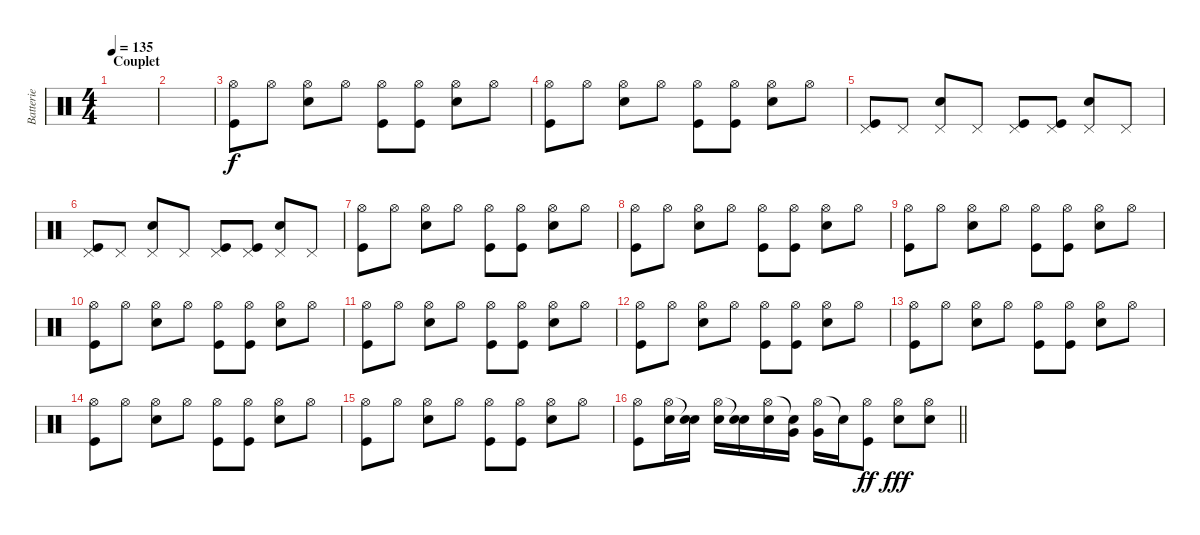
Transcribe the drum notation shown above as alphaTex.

\track ("Batterie" "Batterie") {instrument percussion}
\staff {score}
\articulation defaults
\ts (4 4)
\section ("" "Couplet")
\tempo 135
\clef neutral
\ks c
|
|
("Hi-Hat (open)" "Kick (hit)").8 "Hi-Hat (open)".8 ("Hi-Hat (open)" "Electric Snare (hit)").8 "Hi-Hat (open)".8 ("Hi-Hat (open)" "Kick (hit)").8 ("Hi-Hat (open)" "Kick (hit)").8 ("Hi-Hat (open)" "Electric Snare (hit)").8 "Hi-Hat (open)".8 |
("Hi-Hat (open)" "Kick (hit)").8 "Hi-Hat (open)".8 ("Hi-Hat (open)" "Electric Snare (hit)").8 "Hi-Hat (open)".8 ("Hi-Hat (open)" "Kick (hit)").8 ("Hi-Hat (open)" "Kick (hit)").8 ("Hi-Hat (open)" "Electric Snare (hit)").8 "Hi-Hat (open)".8 |
("Pedal Hi-Hat (hit)" "Kick (hit)").8 "Pedal Hi-Hat (hit)".8 ("Pedal Hi-Hat (hit)" "Electric Snare (hit)").8 "Pedal Hi-Hat (hit)".8 ("Pedal Hi-Hat (hit)" "Kick (hit)").8 ("Pedal Hi-Hat (hit)" "Kick (hit)").8 ("Pedal Hi-Hat (hit)" "Electric Snare (hit)").8 "Pedal Hi-Hat (hit)".8 |
("Pedal Hi-Hat (hit)" "Kick (hit)").8 "Pedal Hi-Hat (hit)".8 ("Pedal Hi-Hat (hit)" "Electric Snare (hit)").8 "Pedal Hi-Hat (hit)".8 ("Pedal Hi-Hat (hit)" "Kick (hit)").8 ("Pedal Hi-Hat (hit)" "Kick (hit)").8 ("Pedal Hi-Hat (hit)" "Electric Snare (hit)").8 "Pedal Hi-Hat (hit)".8 |
("Hi-Hat (open)" "Kick (hit)").8 "Hi-Hat (open)".8 ("Hi-Hat (open)" "Electric Snare (hit)").8 "Hi-Hat (open)".8 ("Hi-Hat (open)" "Kick (hit)").8 ("Hi-Hat (open)" "Kick (hit)").8 ("Hi-Hat (open)" "Electric Snare (hit)").8 "Hi-Hat (open)".8 |
("Hi-Hat (open)" "Kick (hit)").8 "Hi-Hat (open)".8 ("Hi-Hat (open)" "Electric Snare (hit)").8 "Hi-Hat (open)".8 ("Hi-Hat (open)" "Kick (hit)").8 ("Hi-Hat (open)" "Kick (hit)").8 ("Hi-Hat (open)" "Electric Snare (hit)").8 "Hi-Hat (open)".8 |
("Hi-Hat (open)" "Kick (hit)").8 "Hi-Hat (open)".8 ("Hi-Hat (open)" "Electric Snare (hit)").8 "Hi-Hat (open)".8 ("Hi-Hat (open)" "Kick (hit)").8 ("Hi-Hat (open)" "Kick (hit)").8 ("Hi-Hat (open)" "Electric Snare (hit)").8 "Hi-Hat (open)".8 |
("Hi-Hat (open)" "Kick (hit)").8 "Hi-Hat (open)".8 ("Hi-Hat (open)" "Electric Snare (hit)").8 "Hi-Hat (open)".8 ("Hi-Hat (open)" "Kick (hit)").8 ("Hi-Hat (open)" "Kick (hit)").8 ("Hi-Hat (open)" "Electric Snare (hit)").8 "Hi-Hat (open)".8 |
("Hi-Hat (open)" "Kick (hit)").8 "Hi-Hat (open)".8 ("Hi-Hat (open)" "Electric Snare (hit)").8 "Hi-Hat (open)".8 ("Hi-Hat (open)" "Kick (hit)").8 ("Hi-Hat (open)" "Kick (hit)").8 ("Hi-Hat (open)" "Electric Snare (hit)").8 "Hi-Hat (open)".8 |
("Hi-Hat (open)" "Kick (hit)").8 "Hi-Hat (open)".8 ("Hi-Hat (open)" "Electric Snare (hit)").8 "Hi-Hat (open)".8 ("Hi-Hat (open)" "Kick (hit)").8 ("Hi-Hat (open)" "Kick (hit)").8 ("Hi-Hat (open)" "Electric Snare (hit)").8 "Hi-Hat (open)".8 |
("Hi-Hat (open)" "Kick (hit)").8 "Hi-Hat (open)".8 ("Hi-Hat (open)" "Electric Snare (hit)").8 "Hi-Hat (open)".8 ("Hi-Hat (open)" "Kick (hit)").8 ("Hi-Hat (open)" "Kick (hit)").8 ("Hi-Hat (open)" "Electric Snare (hit)").8 "Hi-Hat (open)".8 |
("Hi-Hat (open)" "Kick (hit)").8 "Hi-Hat (open)".8 ("Hi-Hat (open)" "Electric Snare (hit)").8 "Hi-Hat (open)".8 ("Hi-Hat (open)" "Kick (hit)").8 ("Hi-Hat (open)" "Kick (hit)").8 ("Hi-Hat (open)" "Electric Snare (hit)").8 "Hi-Hat (open)".8 |
("Hi-Hat (open)" "Kick (hit)").8 "Hi-Hat (open)".8 ("Hi-Hat (open)" "Electric Snare (hit)").8 "Hi-Hat (open)".8 ("Hi-Hat (open)" "Kick (hit)").8 ("Hi-Hat (open)" "Kick (hit)").8 ("Hi-Hat (open)" "Electric Snare (hit)").8 "Hi-Hat (open)".8 |
\barLineRight lightlight
("Hi-Hat (open)" "Kick (hit)").8 ("Hi-Hat (open)" "Electric Snare (hit)").16 ("Snare (hit)"{t} "Electric Snare (hit)").16 ("Hi-Hat (open)" "Electric Snare (hit)").16 ("Snare (hit)"{t} "Electric Snare (hit)").16 ("Hi-Hat (open)" "Electric Snare (hit)").16 ("Snare (hit)"{t} "Very Low Tom (hit)").16 ("Hi-Hat (open)" "Very Low Tom (hit)").16 "Snare (hit)"{t}.16{dy f} ("Hi-Hat (open)" "Kick (hit)").8{dy ff} ("Hi-Hat (open)" "Electric Snare (hit)").8{dy fff} ("Hi-Hat (open)" "Electric Snare (hit)").8
